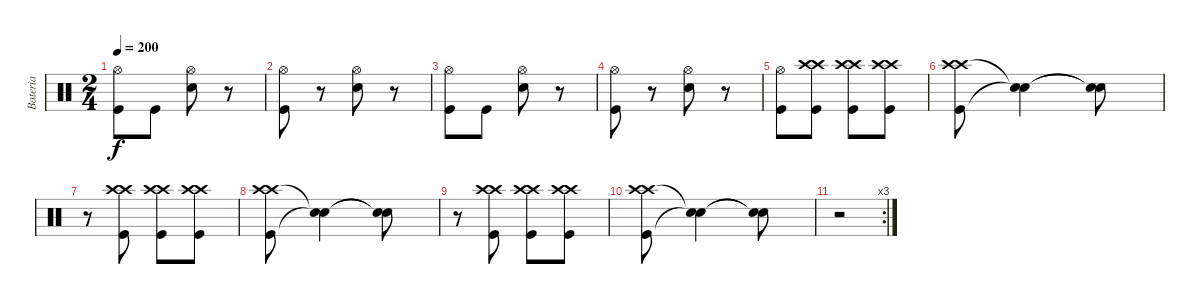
\track ("Bateria" "Bateria") {instrument percussion}
\staff {score}
\articulation defaults
\ts (2 4)
\tempo 200
\clef neutral
\ks c
("Kick (hit)" "Hi-Hat (open)").8{dy f} "Kick (hit)".8 ("Electric Snare (hit)" "Hi-Hat (open)").8 r.8 |
("Kick (hit)" "Hi-Hat (open)").8 r.8 ("Electric Snare (hit)" "Hi-Hat (open)").8 r.8 |
("Kick (hit)" "Hi-Hat (open)").8 "Kick (hit)".8 ("Electric Snare (hit)" "Hi-Hat (open)").8 r.8 |
("Kick (hit)" "Hi-Hat (open)").8 r.8 ("Electric Snare (hit)" "Hi-Hat (open)").8 r.8 |
("Kick (hit)" "Hi-Hat (open)").8 ("Kick (hit)" "Crash high (hit)" "Crash high (hit)").8 ("Kick (hit)" "Crash high (hit)" "Crash high (hit)").8 ("Kick (hit)" "Crash high (hit)" "Crash high (hit)").8 |
("Kick (hit)" "Crash high (hit)" "Crash high (hit)").8 ("Snare (hit)"{t} "Snare (hit)"{t}).4 ("Snare (hit)"{t} "Snare (hit)"{t}).8 |
r.8 ("Kick (hit)" "Crash high (hit)" "Crash high (hit)").8 ("Kick (hit)" "Crash high (hit)" "Crash high (hit)").8 ("Kick (hit)" "Crash high (hit)" "Crash high (hit)").8 |
("Kick (hit)" "Crash high (hit)" "Crash high (hit)").8 ("Snare (hit)"{t} "Snare (hit)"{t}).4 ("Snare (hit)"{t} "Snare (hit)"{t}).8 |
r.8 ("Kick (hit)" "Crash high (hit)" "Crash high (hit)").8 ("Kick (hit)" "Crash high (hit)" "Crash high (hit)").8 ("Kick (hit)" "Crash high (hit)" "Crash high (hit)").8 |
("Kick (hit)" "Crash high (hit)" "Crash high (hit)").8 ("Snare (hit)"{t} "Snare (hit)"{t}).4 ("Snare (hit)"{t} "Snare (hit)"{t}).8 |
\rc 3
r.2
